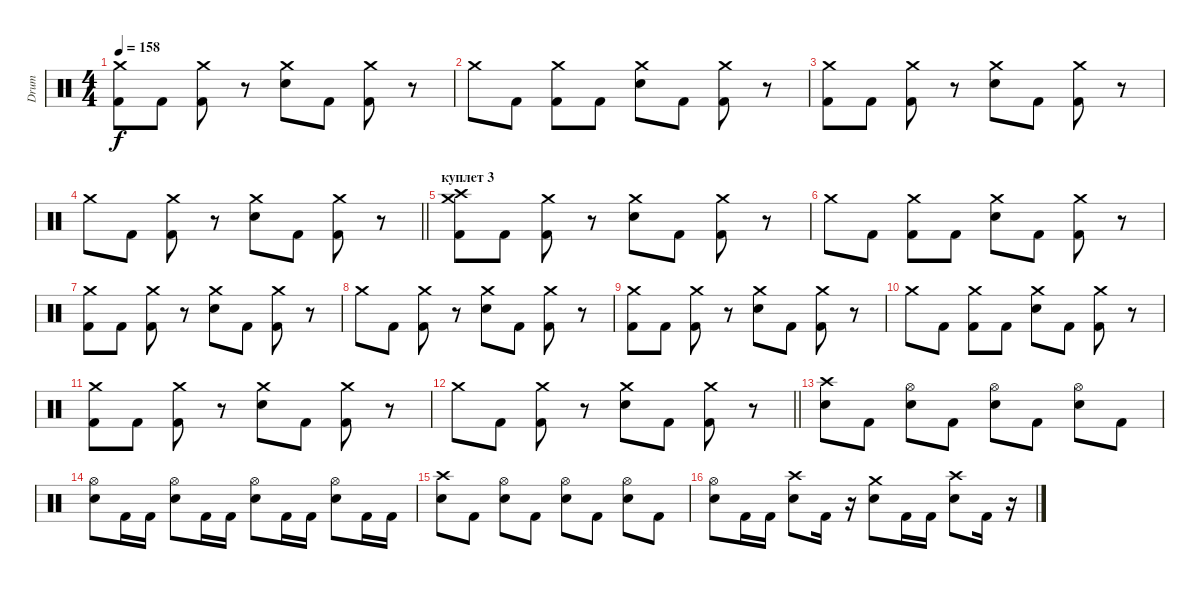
\track ("Drum" "Drum") {instrument percussion}
\staff {score}
\articulation defaults
\ts (4 4)
\tempo 158
\clef neutral
\ks c
("Crash medium (hit)" "Kick (hit) 2").8{dy f} "Kick (hit) 2".8 ("Crash medium (hit)" "Kick (hit) 2").8 r.8 ("Crash medium (hit)" "Electric Snare (hit)").8 "Kick (hit) 2".8 ("Crash medium (hit)" "Kick (hit) 2").8 r.8 |
"Crash medium (hit)".8 "Kick (hit) 2".8 ("Crash medium (hit)" "Kick (hit) 2").8 "Kick (hit) 2".8 ("Crash medium (hit)" "Electric Snare (hit)").8 "Kick (hit) 2".8 ("Crash medium (hit)" "Kick (hit) 2").8 r.8 |
("Crash medium (hit)" "Kick (hit) 2").8 "Kick (hit) 2".8 ("Crash medium (hit)" "Kick (hit) 2").8 r.8 ("Crash medium (hit)" "Electric Snare (hit)").8 "Kick (hit) 2".8 ("Crash medium (hit)" "Kick (hit) 2").8 r.8 |
\barLineRight lightlight "Crash medium (hit)".8 "Kick (hit) 2".8
("Crash medium (hit)" "Kick (hit) 2").8 r.8 ("Crash medium (hit)" "Electric Snare (hit)").8 "Kick (hit) 2".8 ("Crash medium (hit)" "Kick (hit) 2").8 r.8 |
\section ("" "куплет 3")
("Crash high (hit)" "Crash medium (hit)" "Kick (hit) 2").8 "Kick (hit) 2".8 ("Crash medium (hit)" "Kick (hit) 2").8 r.8 ("Crash medium (hit)" "Electric Snare (hit)").8 "Kick (hit) 2".8 ("Crash medium (hit)" "Kick (hit) 2").8 r.8 |
"Crash medium (hit)".8 "Kick (hit) 2".8 ("Crash medium (hit)" "Kick (hit) 2").8 "Kick (hit) 2".8 ("Crash medium (hit)" "Electric Snare (hit)").8 "Kick (hit) 2".8 ("Crash medium (hit)" "Kick (hit) 2").8 r.8 |
("Crash medium (hit)" "Kick (hit) 2").8 "Kick (hit) 2".8 ("Crash medium (hit)" "Kick (hit) 2").8 r.8 ("Crash medium (hit)" "Electric Snare (hit)").8 "Kick (hit) 2".8 ("Crash medium (hit)" "Kick (hit) 2").8 r.8 |
"Crash medium (hit)".8 "Kick (hit) 2".8 ("Crash medium (hit)" "Kick (hit) 2").8 r.8 ("Crash medium (hit)" "Electric Snare (hit)").8 "Kick (hit) 2".8 ("Crash medium (hit)" "Kick (hit) 2").8 r.8 |
("Crash medium (hit)" "Kick (hit) 2").8 "Kick (hit) 2".8 ("Crash medium (hit)" "Kick (hit) 2").8 r.8 ("Crash medium (hit)" "Electric Snare (hit)").8 "Kick (hit) 2".8 ("Crash medium (hit)" "Kick (hit) 2").8 r.8 |
"Crash medium (hit)".8 "Kick (hit) 2".8 ("Crash medium (hit)" "Kick (hit) 2").8 "Kick (hit) 2".8 ("Crash medium (hit)" "Electric Snare (hit)").8 "Kick (hit) 2".8 ("Crash medium (hit)" "Kick (hit) 2").8 r.8 |
("Crash medium (hit)" "Kick (hit) 2").8 "Kick (hit) 2".8 ("Crash medium (hit)" "Kick (hit) 2").8 r.8 ("Crash medium (hit)" "Electric Snare (hit)").8 "Kick (hit) 2".8 ("Crash medium (hit)" "Kick (hit) 2").8 r.8 |
\barLineRight lightlight "Crash medium (hit)".8 "Kick (hit) 2".8
("Crash medium (hit)" "Kick (hit) 2").8 r.8 ("Crash medium (hit)" "Electric Snare (hit)").8 "Kick (hit) 2".8 ("Crash medium (hit)" "Kick (hit) 2").8 r.8 |
\section ("" "")
("Crash high (hit)" "Electric Snare (hit)").8 "Kick (hit) 2".8 ("Hi-Hat (open)" "Electric Snare (hit)").8 "Kick (hit) 2".8 ("Hi-Hat (open)" "Electric Snare (hit)").8 "Kick (hit) 2".8 ("Hi-Hat (open)" "Electric Snare (hit)").8 "Kick (hit) 2".8 |
("Hi-Hat (open)" "Electric Snare (hit)").8 "Kick (hit) 2".16 "Kick (hit) 2".16 ("Hi-Hat (open)" "Electric Snare (hit)").8 "Kick (hit) 2".16 "Kick (hit) 2".16 ("Hi-Hat (open)" "Electric Snare (hit)").8 "Kick (hit) 2".16 "Kick (hit) 2".16 ("Hi-Hat (open)" "Electric Snare (hit)").8 "Kick (hit) 2".16 "Kick (hit) 2".16 |
("Crash high (hit)" "Electric Snare (hit)").8 "Kick (hit) 2".8 ("Hi-Hat (open)" "Electric Snare (hit)").8 "Kick (hit) 2".8 ("Hi-Hat (open)" "Electric Snare (hit)").8 "Kick (hit) 2".8 ("Hi-Hat (open)" "Electric Snare (hit)").8 "Kick (hit) 2".8 |
("Hi-Hat (open)" "Electric Snare (hit)").8 "Kick (hit) 2".16 "Kick (hit) 2".16 ("Crash high (hit)" "Electric Snare (hit)").8 "Kick (hit) 2".16 r.16 ("Crash medium (hit)" "Electric Snare (hit)").8 "Kick (hit) 2".16 "Kick (hit) 2".16 ("Crash high (hit)" "Electric Snare (hit)").8 "Kick (hit) 2".16 r.16
